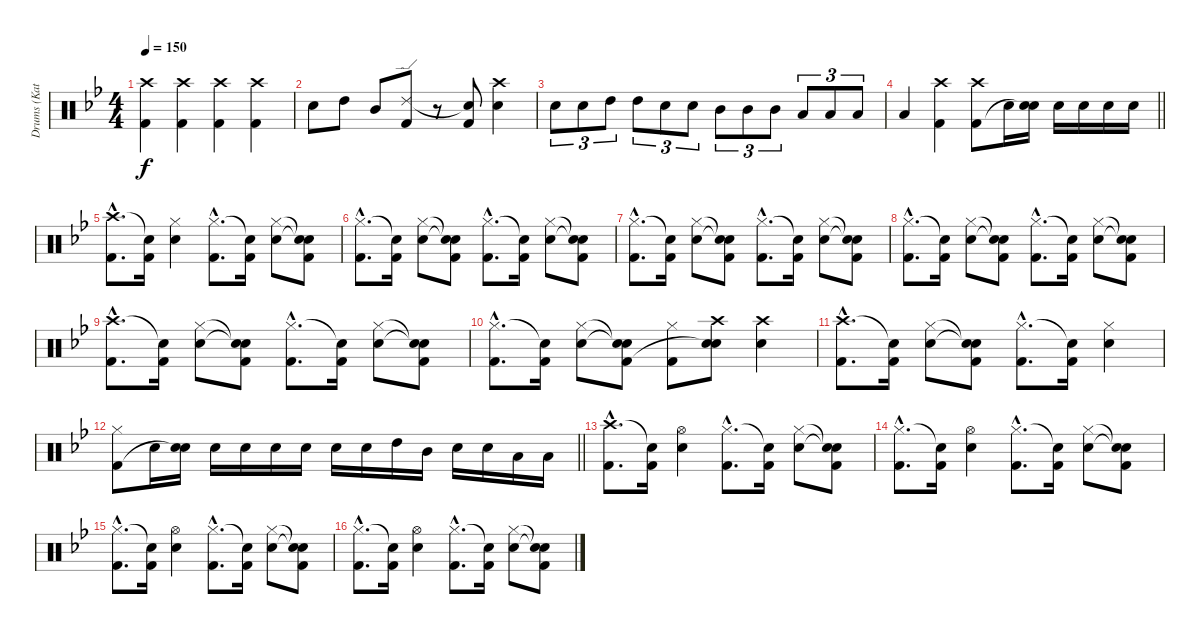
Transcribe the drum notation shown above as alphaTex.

\track ("Drums (Katsuji)" "Drums (Kat") {instrument percussion}
\staff {score}
\articulation defaults
\ts (4 4)
\tempo 150
\clef neutral
\ks bb
("Crash high (hit)" "Kick (hit) 2").4{dy f} ("Crash high (hit)" "Kick (hit) 2").4 ("Crash high (hit)" "Kick (hit) 2").4 ("Crash high (hit)" "Kick (hit) 2").4 |
"Snare (hit) 2".8 "High Tom (hit)".8 "Mid Tom (hit)".8 ("Ride (edge) 2" "Kick (hit) 2").8 r.8 ("Snare (hit)"{t} "Kick (hit) 2").8 ("Crash high (hit)" "Snare (hit) 2").4 |
"Snare (hit) 2".8{tu (3 2)} "Snare (hit) 2".8{tu (3 2)} "High Tom (hit)".8{tu (3 2)} "High Tom (hit)".8{tu (3 2)} "Snare (hit) 2".8{tu (3 2)} "Snare (hit) 2".8{tu (3 2)} "Mid Tom (hit)".8{tu (3 2)} "Mid Tom (hit)".8{tu (3 2)} "Mid Tom (hit)".8{tu (3 2)} "Low Tom (hit)".8{tu (3 2)} "Low Tom (hit)".8{tu (3 2)} "Low Tom (hit)".8{tu (3 2)} |
\barLineRight lightlight "Low Tom (hit)".4
("Crash high (hit)" "Kick (hit) 2").4 ("Crash high (hit)" "Kick (hit) 2").8 "Snare (hit) 2".16 ("Snare (hit) 2" "Snare (hit)"{t}).16 "Snare (hit) 2".16 "Snare (hit) 2".16 "Snare (hit) 2".16 "Snare (hit) 2".16 |
("Crash high (hit)"{hac} "Kick (hit) 2"{hac}).8{d} ("Snare (hit)"{t} "Kick (hit) 2").16 ("Hi-Hat (closed)" "Snare (hit) 2").4 ("Hi-Hat (closed)"{hac} "Kick (hit) 2"{hac}).8{d} ("Snare (hit)"{t} "Kick (hit) 2").16 ("Hi-Hat (closed)" "Snare (hit) 2").8 ("Snare (hit)"{t} "Snare (hit)"{t} "Kick (hit) 2").8 |
("Hi-Hat (closed)"{hac} "Kick (hit) 2"{hac}).8{d} ("Snare (hit)"{t} "Kick (hit) 2").16 ("Hi-Hat (closed)" "Snare (hit) 2").8 ("Snare (hit)"{t} "Snare (hit)"{t} "Kick (hit) 2").8 ("Hi-Hat (closed)"{hac} "Kick (hit) 2"{hac}).8{d} ("Snare (hit)"{t} "Kick (hit) 2").16 ("Hi-Hat (closed)" "Snare (hit) 2").8 ("Snare (hit)"{t} "Snare (hit)"{t} "Kick (hit) 2").8 |
("Hi-Hat (closed)"{hac} "Kick (hit) 2"{hac}).8{d} ("Snare (hit)"{t} "Kick (hit) 2").16 ("Hi-Hat (closed)" "Snare (hit) 2").8 ("Snare (hit)"{t} "Snare (hit)"{t} "Kick (hit) 2").8 ("Hi-Hat (closed)"{hac} "Kick (hit) 2"{hac}).8{d} ("Snare (hit)"{t} "Kick (hit) 2").16 ("Hi-Hat (closed)" "Snare (hit) 2").8 ("Snare (hit)"{t} "Snare (hit)"{t} "Kick (hit) 2").8 |
("Hi-Hat (closed)"{hac} "Kick (hit) 2"{hac}).8{d} ("Snare (hit)"{t} "Kick (hit) 2").16 ("Hi-Hat (closed)" "Snare (hit) 2").8 ("Snare (hit)"{t} "Snare (hit)"{t} "Kick (hit) 2").8 ("Hi-Hat (closed)"{hac} "Kick (hit) 2"{hac}).8{d} ("Snare (hit)"{t} "Kick (hit) 2").16 ("Hi-Hat (closed)" "Snare (hit) 2").8 ("Snare (hit)"{t} "Snare (hit)"{t} "Kick (hit) 2").8 |
("Crash high (hit)"{hac} "Kick (hit) 2"{hac}).8{d} ("Snare (hit)"{t} "Kick (hit) 2").16 ("Hi-Hat (closed)" "Snare (hit) 2").8 ("Snare (hit)"{t} "Snare (hit)"{t} "Kick (hit) 2").8 ("Hi-Hat (closed)"{hac} "Kick (hit) 2"{hac}).8{d} ("Snare (hit)"{t} "Kick (hit) 2").16 ("Hi-Hat (closed)" "Snare (hit) 2").8 ("Snare (hit)"{t} "Snare (hit)"{t} "Kick (hit) 2").8 |
("Hi-Hat (closed)"{hac} "Kick (hit) 2"{hac}).8{d} ("Snare (hit)"{t} "Kick (hit) 2").16 ("Hi-Hat (closed)" "Snare (hit) 2").8 ("Snare (hit)"{t} "Snare (hit)"{t} "Kick (hit) 2").8 ("Hi-Hat (closed)" "Kick (hit) 2").8 ("Crash high (hit)" "Snare (hit) 2" "Snare (hit)"{t}).8 ("Crash high (hit)" "Snare (hit) 2").4 |
("Crash high (hit)"{hac} "Kick (hit) 2"{hac}).8{d} ("Snare (hit)"{t} "Kick (hit) 2").16 ("Hi-Hat (closed)" "Snare (hit) 2").8 ("Snare (hit)"{t} "Snare (hit)"{t} "Kick (hit) 2").8 ("Hi-Hat (closed)"{hac} "Kick (hit) 2"{hac}).8{d} ("Snare (hit)"{t} "Kick (hit) 2").16 ("Hi-Hat (closed)" "Snare (hit) 2").4 |
\barLineRight lightlight
("Hi-Hat (closed)" "Kick (hit) 2").8 "Snare (hit) 2".16 ("Snare (hit) 2" "Snare (hit)"{t}).16 "Snare (hit) 2".16 "Snare (hit) 2".16 "Snare (hit) 2".16 "Snare (hit) 2".16 "Snare (hit) 2".16 "Snare (hit) 2".16 "High Tom (hit)".16 "Mid Tom (hit)".16 "Snare (hit) 2".16 "Snare (hit) 2".16 "Low Tom (hit)".16 "Low Tom (hit)".16 |
("Crash high (hit)"{hac} "Kick (hit) 2"{hac}).8{d} ("Snare (hit)"{t} "Kick (hit) 2").16 ("Hi-Hat (open)" "Snare (hit) 2").4 ("Hi-Hat (closed)"{hac} "Kick (hit) 2"{hac}).8{d} ("Snare (hit)"{t} "Kick (hit) 2").16 ("Hi-Hat (closed)" "Snare (hit) 2").8 ("Snare (hit)"{t} "Snare (hit)"{t} "Kick (hit) 2").8 |
("Hi-Hat (closed)"{hac} "Kick (hit) 2"{hac}).8{d} ("Snare (hit)"{t} "Kick (hit) 2").16 ("Hi-Hat (open)" "Snare (hit) 2").4 ("Hi-Hat (closed)"{hac} "Kick (hit) 2"{hac}).8{d} ("Snare (hit)"{t} "Kick (hit) 2").16 ("Hi-Hat (closed)" "Snare (hit) 2").8 ("Snare (hit)"{t} "Snare (hit)"{t} "Kick (hit) 2").8 |
("Hi-Hat (closed)"{hac} "Kick (hit) 2"{hac}).8{d} ("Snare (hit)"{t} "Kick (hit) 2").16 ("Hi-Hat (open)" "Snare (hit) 2").4 ("Hi-Hat (closed)"{hac} "Kick (hit) 2"{hac}).8{d} ("Snare (hit)"{t} "Kick (hit) 2").16 ("Hi-Hat (closed)" "Snare (hit) 2").8 ("Snare (hit)"{t} "Snare (hit)"{t} "Kick (hit) 2").8 |
("Hi-Hat (closed)"{hac} "Kick (hit) 2"{hac}).8{d} ("Snare (hit)"{t} "Kick (hit) 2").16 ("Hi-Hat (open)" "Snare (hit) 2").4 ("Hi-Hat (closed)"{hac} "Kick (hit) 2"{hac}).8{d} ("Snare (hit)"{t} "Kick (hit) 2").16 ("Hi-Hat (closed)" "Snare (hit) 2").8 ("Snare (hit)"{t} "Snare (hit)"{t} "Kick (hit) 2").8
